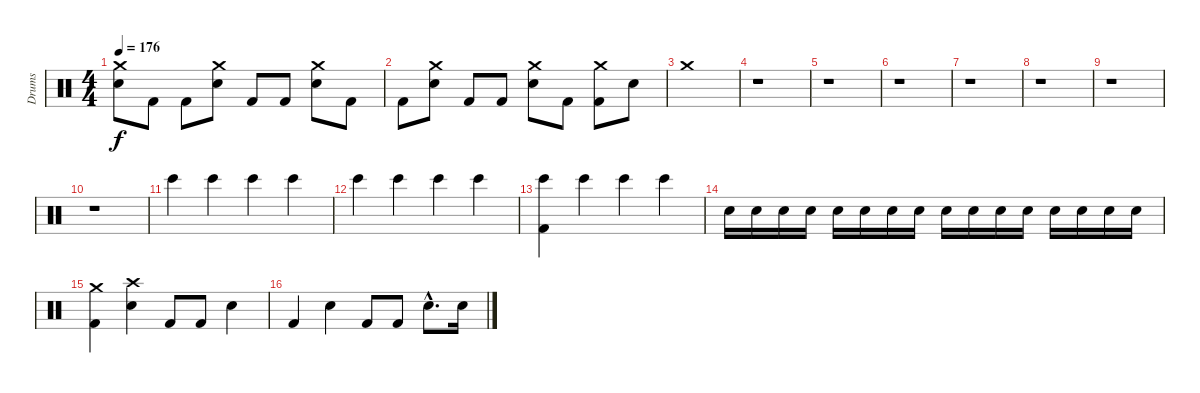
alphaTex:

\track ("Drums" "Drums") {instrument percussion}
\staff {score}
\articulation defaults
\ts (4 4)
\tempo 176
\clef neutral
\ks c
("Snare (hit) 2" "Crash medium (hit)").8{dy f} "Kick (hit) 2".8 "Kick (hit) 2".8 ("Snare (hit) 2" "Crash medium (hit)").8 "Kick (hit) 2".8 "Kick (hit) 2".8 ("Snare (hit) 2" "Crash medium (hit)").8 "Kick (hit) 2".8 |
"Kick (hit) 2".8 ("Snare (hit) 2" "Crash medium (hit)").8 "Kick (hit) 2".8 "Kick (hit) 2".8 ("Snare (hit) 2" "Crash medium (hit)").8 "Kick (hit) 2".8 ("Kick (hit) 2" "Crash medium (hit)").8 "Snare (hit) 2".8 |
"Crash medium (hit)".1 |
r.1 |
r.1 |
r.1 |
r.1 |
r.1 |
r.1 |
r.1 |
"Bongo High (hit)".4 "Bongo High (hit)".4 "Bongo High (hit)".4 "Bongo High (hit)".4 |
"Bongo High (hit)".4 "Bongo High (hit)".4 "Bongo High (hit)".4 "Bongo High (hit)".4 |
("Bongo High (hit)" "Kick (hit) 2").4 "Bongo High (hit)".4 "Bongo High (hit)".4 "Bongo High (hit)".4 |
"Snare (hit) 2".16 "Snare (hit) 2".16 "Snare (hit) 2".16 "Snare (hit) 2".16 "Snare (hit) 2".16 "Snare (hit) 2".16 "Snare (hit) 2".16 "Snare (hit) 2".16 "Snare (hit) 2".16 "Snare (hit) 2".16 "Snare (hit) 2".16 "Snare (hit) 2".16 "Snare (hit) 2".16 "Snare (hit) 2".16 "Snare (hit) 2".16 "Snare (hit) 2".16 |
("Kick (hit) 2" "Crash medium (hit)").4 ("Snare (hit) 2" "Crash high (hit)").4 "Kick (hit) 2".8 "Kick (hit) 2".8 "Snare (hit) 2".4 |
"Kick (hit) 2".4 "Snare (hit) 2".4 "Kick (hit) 2".8 "Kick (hit) 2".8 "Snare (hit) 2"{hac}.8{d} "Snare (hit) 2".16
